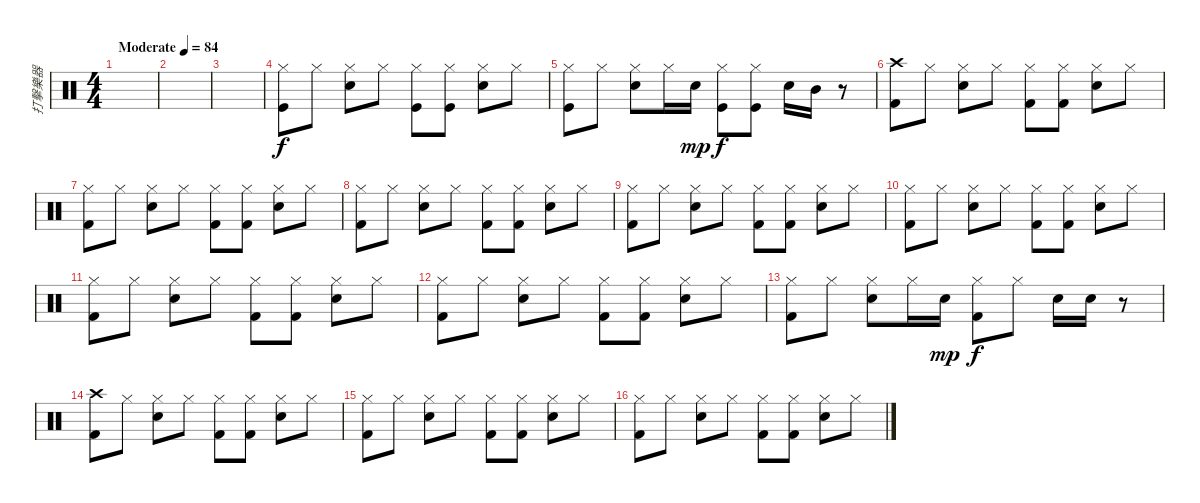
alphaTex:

\track ("打擊樂器" "打擊樂器") {instrument percussion}
\staff {score}
\articulation defaults
\ts (4 4)
\tempo (84 "Moderate")
\clef neutral
\ks c
|
|
|
("Hi-Hat (closed)" "Kick (hit)").8 "Hi-Hat (closed)".8 ("Hi-Hat (closed)" "Snare (hit) 2").8 "Hi-Hat (closed)".8 ("Hi-Hat (closed)" "Kick (hit)").8 ("Hi-Hat (closed)" "Kick (hit)").8 ("Hi-Hat (closed)" "Snare (hit) 2").8 "Hi-Hat (closed)".8 |
("Hi-Hat (closed)" "Kick (hit)").8 "Hi-Hat (closed)".8 ("Hi-Hat (closed)" "Snare (hit) 2").8 "Hi-Hat (closed)".16 "Snare (hit) 2".16{dy mp} ("Hi-Hat (closed)" "Kick (hit)").8{dy f} ("Hi-Hat (closed)" "Kick (hit)").8 "Snare (hit) 2".16 "Mid Tom (hit)".16 r.8 |
("Crash high (hit)" "Kick (hit) 2").8 "Hi-Hat (closed)".8 ("Hi-Hat (closed)" "Snare (hit) 2").8 "Hi-Hat (closed)".8 ("Hi-Hat (closed)" "Kick (hit) 2").8 ("Hi-Hat (closed)" "Kick (hit) 2").8 ("Hi-Hat (closed)" "Snare (hit) 2").8 "Hi-Hat (closed)".8 |
("Hi-Hat (closed)" "Kick (hit) 2").8 "Hi-Hat (closed)".8 ("Hi-Hat (closed)" "Snare (hit) 2").8 "Hi-Hat (closed)".8 ("Hi-Hat (closed)" "Kick (hit) 2").8 ("Hi-Hat (closed)" "Kick (hit) 2").8 ("Hi-Hat (closed)" "Snare (hit) 2").8 "Hi-Hat (closed)".8 |
("Hi-Hat (closed)" "Kick (hit) 2").8 "Hi-Hat (closed)".8 ("Hi-Hat (closed)" "Snare (hit) 2").8 "Hi-Hat (closed)".8 ("Hi-Hat (closed)" "Kick (hit) 2").8 ("Hi-Hat (closed)" "Kick (hit) 2").8 ("Hi-Hat (closed)" "Snare (hit) 2").8 "Hi-Hat (closed)".8 |
("Hi-Hat (closed)" "Kick (hit) 2").8 "Hi-Hat (closed)".8 ("Hi-Hat (closed)" "Snare (hit) 2").8 "Hi-Hat (closed)".8 ("Hi-Hat (closed)" "Kick (hit) 2").8 ("Hi-Hat (closed)" "Kick (hit) 2").8 ("Hi-Hat (closed)" "Snare (hit) 2").8 "Hi-Hat (closed)".8 |
("Hi-Hat (closed)" "Kick (hit) 2").8 "Hi-Hat (closed)".8 ("Hi-Hat (closed)" "Snare (hit) 2").8 "Hi-Hat (closed)".8 ("Hi-Hat (closed)" "Kick (hit) 2").8 ("Hi-Hat (closed)" "Kick (hit) 2").8 ("Hi-Hat (closed)" "Snare (hit) 2").8 "Hi-Hat (closed)".8 |
("Hi-Hat (closed)" "Kick (hit) 2").8 "Hi-Hat (closed)".8 ("Hi-Hat (closed)" "Snare (hit) 2").8 "Hi-Hat (closed)".8 ("Hi-Hat (closed)" "Kick (hit) 2").8 ("Hi-Hat (closed)" "Kick (hit) 2").8 ("Hi-Hat (closed)" "Snare (hit) 2").8 "Hi-Hat (closed)".8 |
("Hi-Hat (closed)" "Kick (hit) 2").8 "Hi-Hat (closed)".8 ("Hi-Hat (closed)" "Snare (hit) 2").8 "Hi-Hat (closed)".8 ("Hi-Hat (closed)" "Kick (hit) 2").8 ("Hi-Hat (closed)" "Kick (hit) 2").8 ("Hi-Hat (closed)" "Snare (hit) 2").8 "Hi-Hat (closed)".8 |
("Hi-Hat (closed)" "Kick (hit) 2").8 "Hi-Hat (closed)".8 ("Hi-Hat (closed)" "Snare (hit) 2").8 "Hi-Hat (closed)".16 "Snare (hit) 2".16{dy mp} ("Hi-Hat (closed)" "Kick (hit) 2").8{dy f} "Hi-Hat (closed)".8 "Snare (hit) 2".16 "Snare (hit) 2".16 r.8 |
("Crash high (hit)" "Kick (hit) 2").8 "Hi-Hat (closed)".8 ("Hi-Hat (closed)" "Snare (hit) 2").8 "Hi-Hat (closed)".8 ("Hi-Hat (closed)" "Kick (hit) 2").8 ("Hi-Hat (closed)" "Kick (hit) 2").8 ("Hi-Hat (closed)" "Snare (hit) 2").8 "Hi-Hat (closed)".8 |
("Hi-Hat (closed)" "Kick (hit) 2").8 "Hi-Hat (closed)".8 ("Hi-Hat (closed)" "Snare (hit) 2").8 "Hi-Hat (closed)".8 ("Hi-Hat (closed)" "Kick (hit) 2").8 ("Hi-Hat (closed)" "Kick (hit) 2").8 ("Hi-Hat (closed)" "Snare (hit) 2").8 "Hi-Hat (closed)".8 |
("Hi-Hat (closed)" "Kick (hit) 2").8 "Hi-Hat (closed)".8 ("Hi-Hat (closed)" "Snare (hit) 2").8 "Hi-Hat (closed)".8 ("Hi-Hat (closed)" "Kick (hit) 2").8 ("Hi-Hat (closed)" "Kick (hit) 2").8 ("Hi-Hat (closed)" "Snare (hit) 2").8 "Hi-Hat (closed)".8
